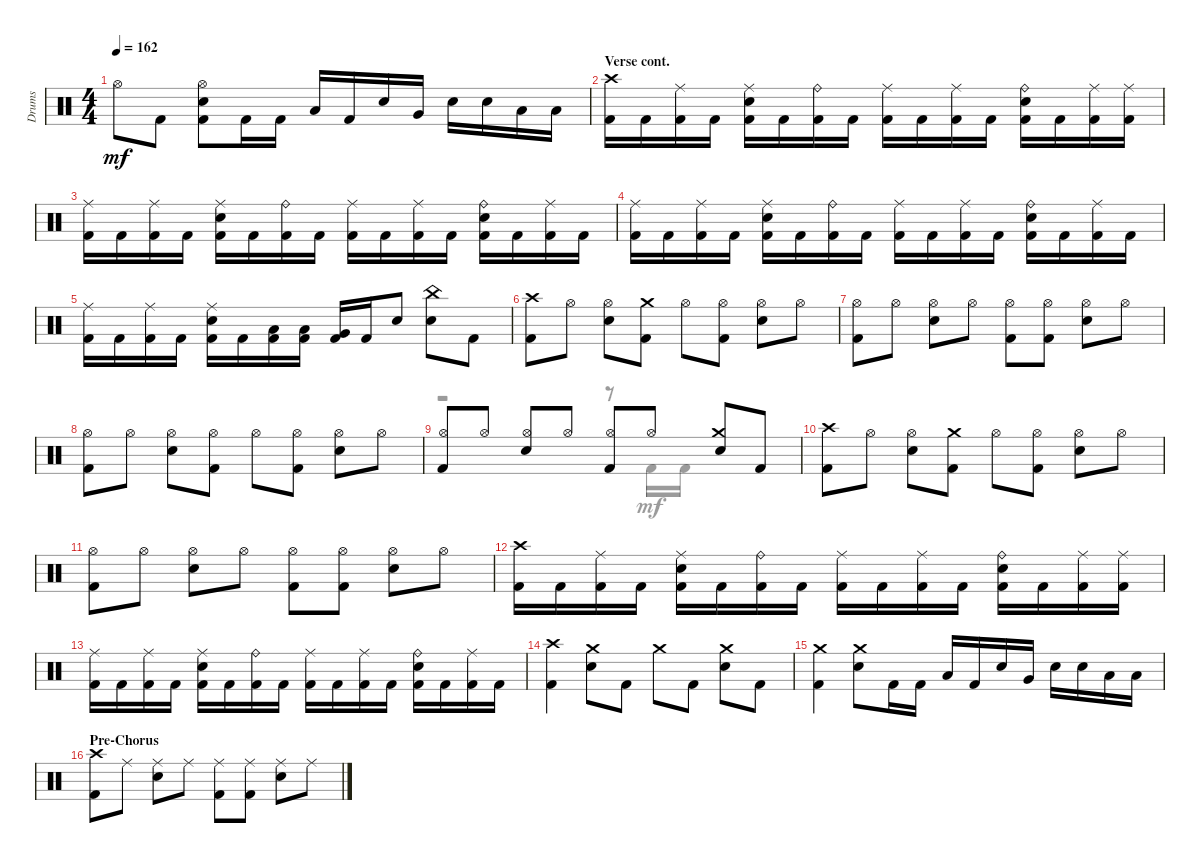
\track ("Drums" "Drums") {instrument percussion}
\staff {score}
\articulation defaults
\voice
\ts (4 4)
\tempo 162
\clef neutral
\ks aminor "Hi-Hat (open)".8{dy mf} "Kick (hit) 2".8
("Snare (hit) 2" "Hi-Hat (open)" "Kick (hit) 2").8 "Kick (hit) 2".16 "Kick (hit) 2".16 "Low Tom (hit)".16 "Kick (hit) 2".16 "Snare (hit) 2".16 "Very Low Tom (hit)".16 "Snare (hit) 2".16 "Snare (hit) 2".16 "Low Floor Tom (hit)".16 "Low Floor Tom (hit)".16 |
\section ("" "Verse cont.")
("Crash high (hit)" "Kick (hit) 2").16 "Kick (hit) 2".16 ("Kick (hit) 2" "Ride (middle)").16 "Kick (hit) 2".16 ("Kick (hit) 2" "Ride (middle)" "Snare (hit) 2").16 "Kick (hit) 2".16 ("Kick (hit) 2" "Ride (bell)").16 "Kick (hit) 2".16 ("Kick (hit) 2" "Ride (middle)").16 "Kick (hit) 2".16 ("Kick (hit) 2" "Ride (middle)").16 "Kick (hit) 2".16 ("Snare (hit) 2" "Ride (bell)" "Kick (hit) 2").16 "Kick (hit) 2".16 ("Kick (hit) 2" "Ride (middle)").16 ("Kick (hit) 2" "Ride (middle)").16 |
("Ride (middle)" "Kick (hit) 2").16 "Kick (hit) 2".16 ("Kick (hit) 2" "Ride (middle)").16 "Kick (hit) 2".16 ("Kick (hit) 2" "Snare (hit) 2" "Ride (middle)").16 "Kick (hit) 2".16 ("Ride (bell)" "Kick (hit) 2").16 "Kick (hit) 2".16 ("Ride (middle)" "Kick (hit) 2").16 "Kick (hit) 2".16 ("Ride (middle)" "Kick (hit) 2").16 "Kick (hit) 2".16 ("Snare (hit) 2" "Kick (hit) 2" "Ride (bell)").16 "Kick (hit) 2".16 ("Kick (hit) 2" "Ride (middle)").16 "Kick (hit) 2".16 |
("Kick (hit) 2" "Ride (middle)").16 "Kick (hit) 2".16 ("Ride (middle)" "Kick (hit) 2").16 "Kick (hit) 2".16 ("Snare (hit) 2" "Kick (hit) 2" "Ride (middle)").16 "Kick (hit) 2".16 ("Ride (bell)" "Kick (hit) 2").16 "Kick (hit) 2".16 ("Kick (hit) 2" "Ride (middle)").16 "Kick (hit) 2".16 ("Ride (middle)" "Kick (hit) 2").16 "Kick (hit) 2".16 ("Ride (bell)" "Snare (hit) 2" "Kick (hit) 2").16 "Kick (hit) 2".16 ("Kick (hit) 2" "Ride (middle)").16 "Kick (hit) 2".16 |
("Ride (middle)" "Kick (hit) 2").16 "Kick (hit) 2".16 ("Kick (hit) 2" "Ride (middle)").16 "Kick (hit) 2".16 ("Ride (middle)" "Kick (hit) 2" "Snare (hit) 2").16 "Kick (hit) 2".16 ("Low Tom (hit)" "Kick (hit) 2").16 ("Kick (hit) 2" "Low Tom (hit)").16 ("Kick (hit) 2" "Very Low Tom (hit)").16 "Kick (hit) 2".16 "Snare (hit) 2".8 ("China (hit)" "Snare (hit) 2").8 "Kick (hit) 2".8 |
("Kick (hit) 2" "Crash high (hit)").8 "Hi-Hat (open)".8 ("Hi-Hat (open)" "Snare (hit) 2").8 ("Crash medium (hit)" "Kick (hit) 2").8 "Hi-Hat (open)".8 ("Hi-Hat (open)" "Kick (hit) 2").8 ("Snare (hit) 2" "Hi-Hat (open)").8 "Hi-Hat (open)".8 |
("Kick (hit) 2" "Hi-Hat (open)").8 "Hi-Hat (open)".8 ("Snare (hit) 2" "Hi-Hat (open)").8 "Hi-Hat (open)".8 ("Kick (hit) 2" "Hi-Hat (open)").8 ("Kick (hit) 2" "Hi-Hat (open)").8 ("Snare (hit) 2" "Hi-Hat (open)").8 "Hi-Hat (open)".8 |
("Hi-Hat (open)" "Kick (hit) 2").8 "Hi-Hat (open)".8 ("Snare (hit) 2" "Hi-Hat (open)").8 ("Kick (hit) 2" "Hi-Hat (open)").8 "Hi-Hat (open)".8 ("Hi-Hat (open)" "Kick (hit) 2").8 ("Hi-Hat (open)" "Snare (hit) 2").8 "Hi-Hat (open)".8 |
("Hi-Hat (open)" "Kick (hit) 2").8 "Hi-Hat (open)".8 ("Hi-Hat (open)" "Snare (hit) 2").8 "Hi-Hat (open)".8 ("Hi-Hat (open)" "Kick (hit) 2").8 "Hi-Hat (open)".8 ("Snare (hit) 2" "Crash medium (hit)").8 "Kick (hit) 2".8 |
("Kick (hit) 2" "Crash high (hit)").8 "Hi-Hat (open)".8 ("Snare (hit) 2" "Hi-Hat (open)").8 ("Crash medium (hit)" "Kick (hit) 2").8 "Hi-Hat (open)".8 ("Kick (hit) 2" "Hi-Hat (open)").8 ("Hi-Hat (open)" "Snare (hit) 2").8 "Hi-Hat (open)".8 |
("Hi-Hat (open)" "Kick (hit) 2").8 "Hi-Hat (open)".8 ("Hi-Hat (open)" "Snare (hit) 2").8 "Hi-Hat (open)".8 ("Hi-Hat (open)" "Kick (hit) 2").8 ("Kick (hit) 2" "Hi-Hat (open)").8 ("Hi-Hat (open)" "Snare (hit) 2").8 "Hi-Hat (open)".8 |
("Kick (hit) 2" "Crash high (hit)").16 "Kick (hit) 2".16 ("Ride (middle)" "Kick (hit) 2").16 "Kick (hit) 2".16 ("Ride (middle)" "Kick (hit) 2" "Snare (hit) 2").16 "Kick (hit) 2".16 ("Kick (hit) 2" "Ride (bell)").16 "Kick (hit) 2".16 ("Ride (middle)" "Kick (hit) 2").16 "Kick (hit) 2".16 ("Ride (middle)" "Kick (hit) 2").16 "Kick (hit) 2".16 ("Kick (hit) 2" "Ride (bell)" "Snare (hit) 2").16 "Kick (hit) 2".16 ("Kick (hit) 2" "Ride (middle)").16 ("Kick (hit) 2" "Ride (middle)").16 |
("Ride (middle)" "Kick (hit) 2").16 "Kick (hit) 2".16 ("Ride (middle)" "Kick (hit) 2").16 "Kick (hit) 2".16 ("Kick (hit) 2" "Ride (middle)" "Snare (hit) 2").16 "Kick (hit) 2".16 ("Ride (bell)" "Kick (hit) 2").16 "Kick (hit) 2".16 ("Kick (hit) 2" "Ride (middle)").16 "Kick (hit) 2".16 ("Ride (middle)" "Kick (hit) 2").16 "Kick (hit) 2".16 ("Snare (hit) 2" "Ride (bell)" "Kick (hit) 2").16 "Kick (hit) 2".16 ("Kick (hit) 2" "Ride (middle)").16 "Kick (hit) 2".16 |
("Kick (hit) 2" "Crash high (hit)").4 ("Snare (hit) 2" "Crash medium (hit)").8 "Kick (hit) 2".8 "Crash medium (hit)".8 "Kick (hit) 2".8 ("Snare (hit) 2" "Crash medium (hit)").8 "Kick (hit) 2".8 |
("Crash medium (hit)" "Kick (hit) 2").4 ("Crash medium (hit)" "Snare (hit) 2").8 "Kick (hit) 2".16 "Kick (hit) 2".16 "Low Tom (hit)".16 "Kick (hit) 2".16 "Snare (hit) 2".16 "Very Low Tom (hit)".16 "Snare (hit) 2".16 "Snare (hit) 2".16 "Low Floor Tom (hit)".16 "Low Floor Tom (hit)".16 |
\section ("" "Pre-Chorus")
("Kick (hit) 2" "Crash high (hit)").8 "Ride (middle)".8 ("Snare (hit) 2" "Ride (middle)").8 "Ride (middle)".8 ("Kick (hit) 2" "Ride (middle)").8 ("Ride (middle)" "Kick (hit) 2").8 ("Snare (hit) 2" "Ride (middle)").8 "Ride (middle)".8
\voice
\clef neutral
\ottava regular
\simile none
\ks aminor
|
|
|
|
|
|
|
|
r.2 r.8 "Kick (hit) 2".16 "Kick (hit) 2".16 |
|
|
|
|
|
|
